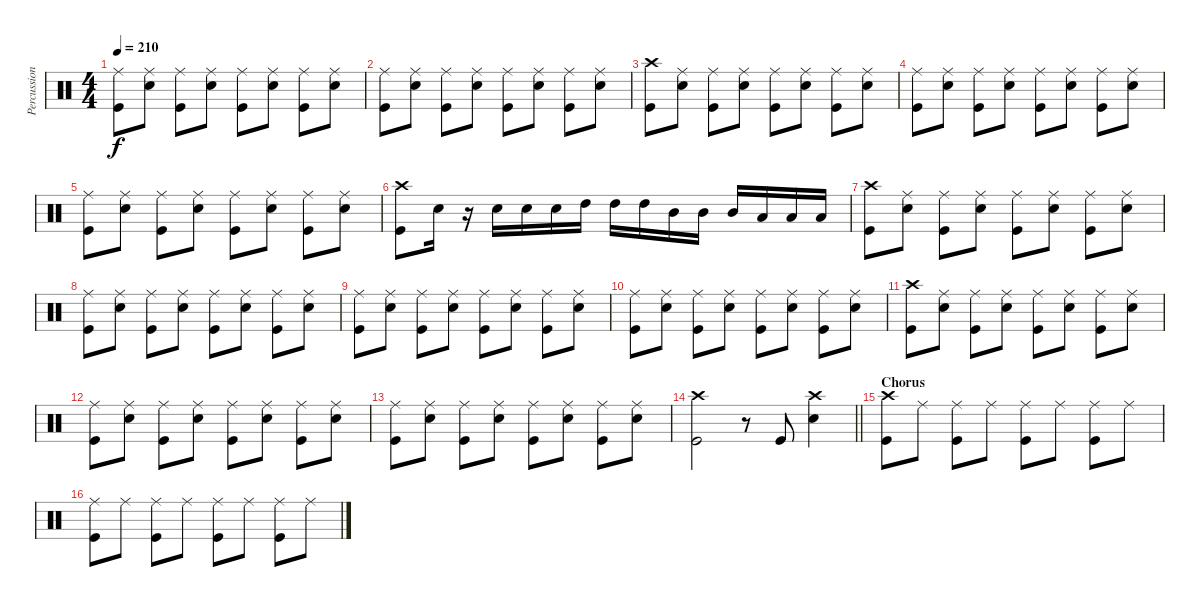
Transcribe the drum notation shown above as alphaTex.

\track ("Percussion" "Percussion") {instrument percussion}
\staff {score}
\articulation defaults
\ts (4 4)
\tempo 210
\clef neutral
\ks c
("Ride (middle)" "Kick (hit)").8{dy f} ("Ride (middle)" "Snare (hit) 2").8 ("Ride (middle)" "Kick (hit)").8 ("Ride (middle)" "Snare (hit) 2").8 ("Ride (middle)" "Kick (hit)").8 ("Ride (middle)" "Snare (hit) 2").8 ("Ride (middle)" "Kick (hit)").8 ("Ride (middle)" "Snare (hit) 2").8 |
("Ride (middle)" "Kick (hit)").8 ("Ride (middle)" "Snare (hit) 2").8 ("Ride (middle)" "Kick (hit)").8 ("Ride (middle)" "Snare (hit) 2").8 ("Ride (middle)" "Kick (hit)").8 ("Ride (middle)" "Snare (hit) 2").8 ("Ride (middle)" "Kick (hit)").8 ("Ride (middle)" "Snare (hit) 2").8 |
("Crash high (hit)" "Kick (hit)").8 ("Ride (middle)" "Snare (hit) 2").8 ("Ride (middle)" "Kick (hit)").8 ("Ride (middle)" "Snare (hit) 2").8 ("Ride (middle)" "Kick (hit)").8 ("Ride (middle)" "Snare (hit) 2").8 ("Ride (middle)" "Kick (hit)").8 ("Ride (middle)" "Snare (hit) 2").8 |
("Ride (middle)" "Kick (hit)").8 ("Ride (middle)" "Snare (hit) 2").8 ("Ride (middle)" "Kick (hit)").8 ("Ride (middle)" "Snare (hit) 2").8 ("Ride (middle)" "Kick (hit)").8 ("Ride (middle)" "Snare (hit) 2").8 ("Ride (middle)" "Kick (hit)").8 ("Ride (middle)" "Snare (hit) 2").8 |
("Ride (middle)" "Kick (hit)").8 ("Ride (middle)" "Snare (hit) 2").8 ("Ride (middle)" "Kick (hit)").8 ("Ride (middle)" "Snare (hit) 2").8 ("Ride (middle)" "Kick (hit)").8 ("Ride (middle)" "Snare (hit) 2").8 ("Ride (middle)" "Kick (hit)").8 ("Ride (middle)" "Snare (hit) 2").8 |
("Crash high (hit)" "Kick (hit)").8 "Snare (hit) 2".16 r.16 "Snare (hit) 2".16 "Snare (hit) 2".16 "Snare (hit) 2".16 "High Tom (hit)".16 "High Tom (hit)".16 "High Tom (hit)".16 "Mid Tom (hit)".16 "Mid Tom (hit)".16 "Mid Tom (hit)".16 "Low Tom (hit)".16 "Low Tom (hit)".16 "Low Tom (hit)".16 |
("Crash high (hit)" "Kick (hit)").8 ("Ride (middle)" "Snare (hit) 2").8 ("Ride (middle)" "Kick (hit)").8 ("Ride (middle)" "Snare (hit) 2").8 ("Ride (middle)" "Kick (hit)").8 ("Ride (middle)" "Snare (hit) 2").8 ("Ride (middle)" "Kick (hit)").8 ("Ride (middle)" "Snare (hit) 2").8 |
("Ride (middle)" "Kick (hit)").8 ("Ride (middle)" "Snare (hit) 2").8 ("Ride (middle)" "Kick (hit)").8 ("Ride (middle)" "Snare (hit) 2").8 ("Ride (middle)" "Kick (hit)").8 ("Ride (middle)" "Snare (hit) 2").8 ("Ride (middle)" "Kick (hit)").8 ("Ride (middle)" "Snare (hit) 2").8 |
("Ride (middle)" "Kick (hit)").8 ("Ride (middle)" "Snare (hit) 2").8 ("Ride (middle)" "Kick (hit)").8 ("Ride (middle)" "Snare (hit) 2").8 ("Ride (middle)" "Kick (hit)").8 ("Ride (middle)" "Snare (hit) 2").8 ("Ride (middle)" "Kick (hit)").8 ("Ride (middle)" "Snare (hit) 2").8 |
("Ride (middle)" "Kick (hit)").8 ("Ride (middle)" "Snare (hit) 2").8 ("Ride (middle)" "Kick (hit)").8 ("Ride (middle)" "Snare (hit) 2").8 ("Ride (middle)" "Kick (hit)").8 ("Ride (middle)" "Snare (hit) 2").8 ("Ride (middle)" "Kick (hit)").8 ("Ride (middle)" "Snare (hit) 2").8 |
("Crash high (hit)" "Kick (hit)").8 ("Ride (middle)" "Snare (hit) 2").8 ("Ride (middle)" "Kick (hit)").8 ("Ride (middle)" "Snare (hit) 2").8 ("Ride (middle)" "Kick (hit)").8 ("Ride (middle)" "Snare (hit) 2").8 ("Ride (middle)" "Kick (hit)").8 ("Ride (middle)" "Snare (hit) 2").8 |
("Ride (middle)" "Kick (hit)").8 ("Ride (middle)" "Snare (hit) 2").8 ("Ride (middle)" "Kick (hit)").8 ("Ride (middle)" "Snare (hit) 2").8 ("Ride (middle)" "Kick (hit)").8 ("Ride (middle)" "Snare (hit) 2").8 ("Ride (middle)" "Kick (hit)").8 ("Ride (middle)" "Snare (hit) 2").8 |
("Ride (middle)" "Kick (hit)").8 ("Ride (middle)" "Snare (hit) 2").8 ("Ride (middle)" "Kick (hit)").8 ("Ride (middle)" "Snare (hit) 2").8 ("Ride (middle)" "Kick (hit)").8 ("Ride (middle)" "Snare (hit) 2").8 ("Ride (middle)" "Kick (hit)").8 ("Ride (middle)" "Snare (hit) 2").8 |
\barLineRight lightlight
("Crash high (hit)" "Kick (hit)").2 r.8 "Kick (hit)".8 ("Crash high (hit)" "Snare (hit) 2").4 |
\section ("" "Chorus")
("Crash high (hit)" "Kick (hit)").8 "Ride (middle)".8 ("Ride (middle)" "Kick (hit)").8 "Ride (middle)".8 ("Ride (middle)" "Kick (hit)").8 "Ride (middle)".8 ("Ride (middle)" "Kick (hit)").8 "Ride (middle)".8 |
("Ride (middle)" "Kick (hit)").8 "Ride (middle)".8 ("Ride (middle)" "Kick (hit)").8 "Ride (middle)".8 ("Ride (middle)" "Kick (hit)").8 "Ride (middle)".8 ("Ride (middle)" "Kick (hit)").8 "Ride (middle)".8
